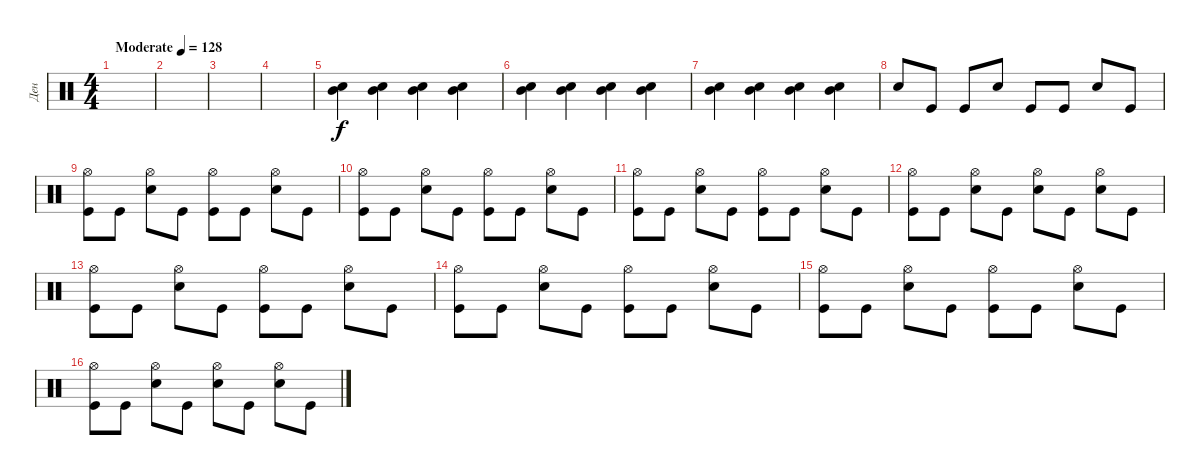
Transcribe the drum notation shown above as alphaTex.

\track ("Ден" "Ден") {instrument percussion}
\staff
\articulation defaults
\ts (4 4)
\tempo (128 "Moderate")
\clef neutral
\ks c
|
|
|
|
("Snare (hit) 2" "Mid Tom (hit)").4 ("Snare (hit) 2" "Mid Tom (hit)").4 ("Snare (hit) 2" "Mid Tom (hit)").4 ("Snare (hit) 2" "Mid Tom (hit)").4 |
("Snare (hit) 2" "Mid Tom (hit)").4 ("Snare (hit) 2" "Mid Tom (hit)").4 ("Snare (hit) 2" "Mid Tom (hit)").4 ("Snare (hit) 2" "Mid Tom (hit)").4 |
("Snare (hit) 2" "Mid Tom (hit)").4 ("Snare (hit) 2" "Mid Tom (hit)").4 ("Snare (hit) 2" "Mid Tom (hit)").4 ("Snare (hit) 2" "Mid Tom (hit)").4 |
"Snare (hit) 2".8{volume 16} "Kick (hit)".8 "Kick (hit)".8 "Snare (hit) 2".8 "Kick (hit)".8 "Kick (hit)".8 "Snare (hit) 2".8 "Kick (hit)".8 |
("Kick (hit)" "Hi-Hat (open)").8 "Kick (hit)".8 ("Snare (hit) 2" "Hi-Hat (open)").8 "Kick (hit)".8 ("Kick (hit)" "Hi-Hat (open)").8 "Kick (hit)".8 ("Snare (hit) 2" "Hi-Hat (open)").8 "Kick (hit)".8 |
("Kick (hit)" "Hi-Hat (open)").8 "Kick (hit)".8 ("Snare (hit) 2" "Hi-Hat (open)").8 "Kick (hit)".8 ("Kick (hit)" "Hi-Hat (open)").8 "Kick (hit)".8 ("Snare (hit) 2" "Hi-Hat (open)").8 "Kick (hit)".8 |
("Kick (hit)" "Hi-Hat (open)").8 "Kick (hit)".8 ("Snare (hit) 2" "Hi-Hat (open)").8 "Kick (hit)".8 ("Kick (hit)" "Hi-Hat (open)").8 "Kick (hit)".8 ("Snare (hit) 2" "Hi-Hat (open)").8 "Kick (hit)".8 |
("Kick (hit)" "Hi-Hat (open)").8 "Kick (hit)".8 ("Snare (hit) 2" "Hi-Hat (open)").8 "Kick (hit)".8 ("Snare (hit) 2" "Hi-Hat (open)").8 "Kick (hit)".8 ("Snare (hit) 2" "Hi-Hat (open)").8 "Kick (hit)".8 |
("Kick (hit)" "Hi-Hat (open)").8 "Kick (hit)".8 ("Snare (hit) 2" "Hi-Hat (open)").8 "Kick (hit)".8 ("Kick (hit)" "Hi-Hat (open)").8 "Kick (hit)".8 ("Snare (hit) 2" "Hi-Hat (open)").8 "Kick (hit)".8 |
("Kick (hit)" "Hi-Hat (open)").8 "Kick (hit)".8 ("Snare (hit) 2" "Hi-Hat (open)").8 "Kick (hit)".8 ("Kick (hit)" "Hi-Hat (open)").8 "Kick (hit)".8 ("Snare (hit) 2" "Hi-Hat (open)").8 "Kick (hit)".8 |
("Kick (hit)" "Hi-Hat (open)").8 "Kick (hit)".8 ("Snare (hit) 2" "Hi-Hat (open)").8 "Kick (hit)".8 ("Kick (hit)" "Hi-Hat (open)").8 "Kick (hit)".8 ("Snare (hit) 2" "Hi-Hat (open)").8 "Kick (hit)".8 |
("Kick (hit)" "Hi-Hat (open)").8 "Kick (hit)".8 ("Snare (hit) 2" "Hi-Hat (open)").8 "Kick (hit)".8 ("Snare (hit) 2" "Hi-Hat (open)").8 "Kick (hit)".8 ("Snare (hit) 2" "Hi-Hat (open)").8 "Kick (hit)".8
